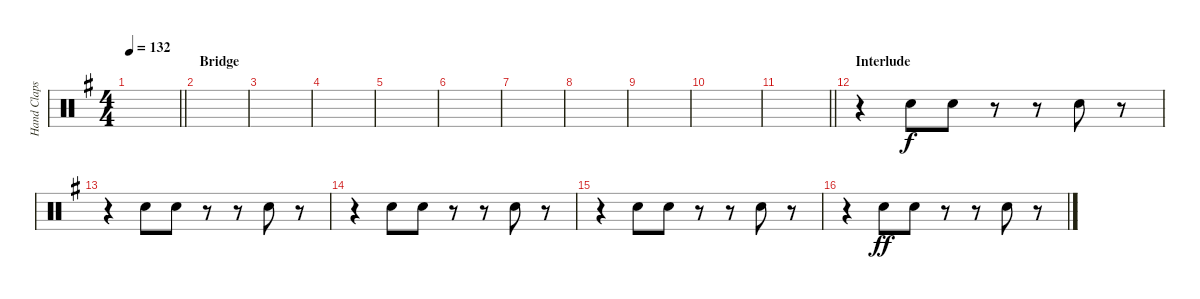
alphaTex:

\track ("Hand Claps" "Hand Claps") {instrument percussion}
\staff {score}
\articulation defaults
\ts (4 4)
\tempo 132
\clef neutral
\barLineRight lightlight
\ks g
|
\section ("" "Bridge")
|
|
|
|
|
|
|
|
|
\barLineRight lightlight
|
\section ("" "Interlude")
r.4 "Hand Clap (hit)".8 "Hand Clap (hit)".8 r.8 r.8 "Hand Clap (hit)".8 r.8 |
r.4 "Hand Clap (hit)".8 "Hand Clap (hit)".8 r.8 r.8 "Hand Clap (hit)".8 r.8 |
r.4 "Hand Clap (hit)".8 "Hand Clap (hit)".8 r.8 r.8 "Hand Clap (hit)".8 r.8 |
r.4 "Hand Clap (hit)".8 "Hand Clap (hit)".8 r.8 r.8 "Hand Clap (hit)".8 r.8 |
r.4 "Hand Clap (hit)".8{dy ff} "Hand Clap (hit)".8 r.8 r.8 "Hand Clap (hit)".8 r.8
